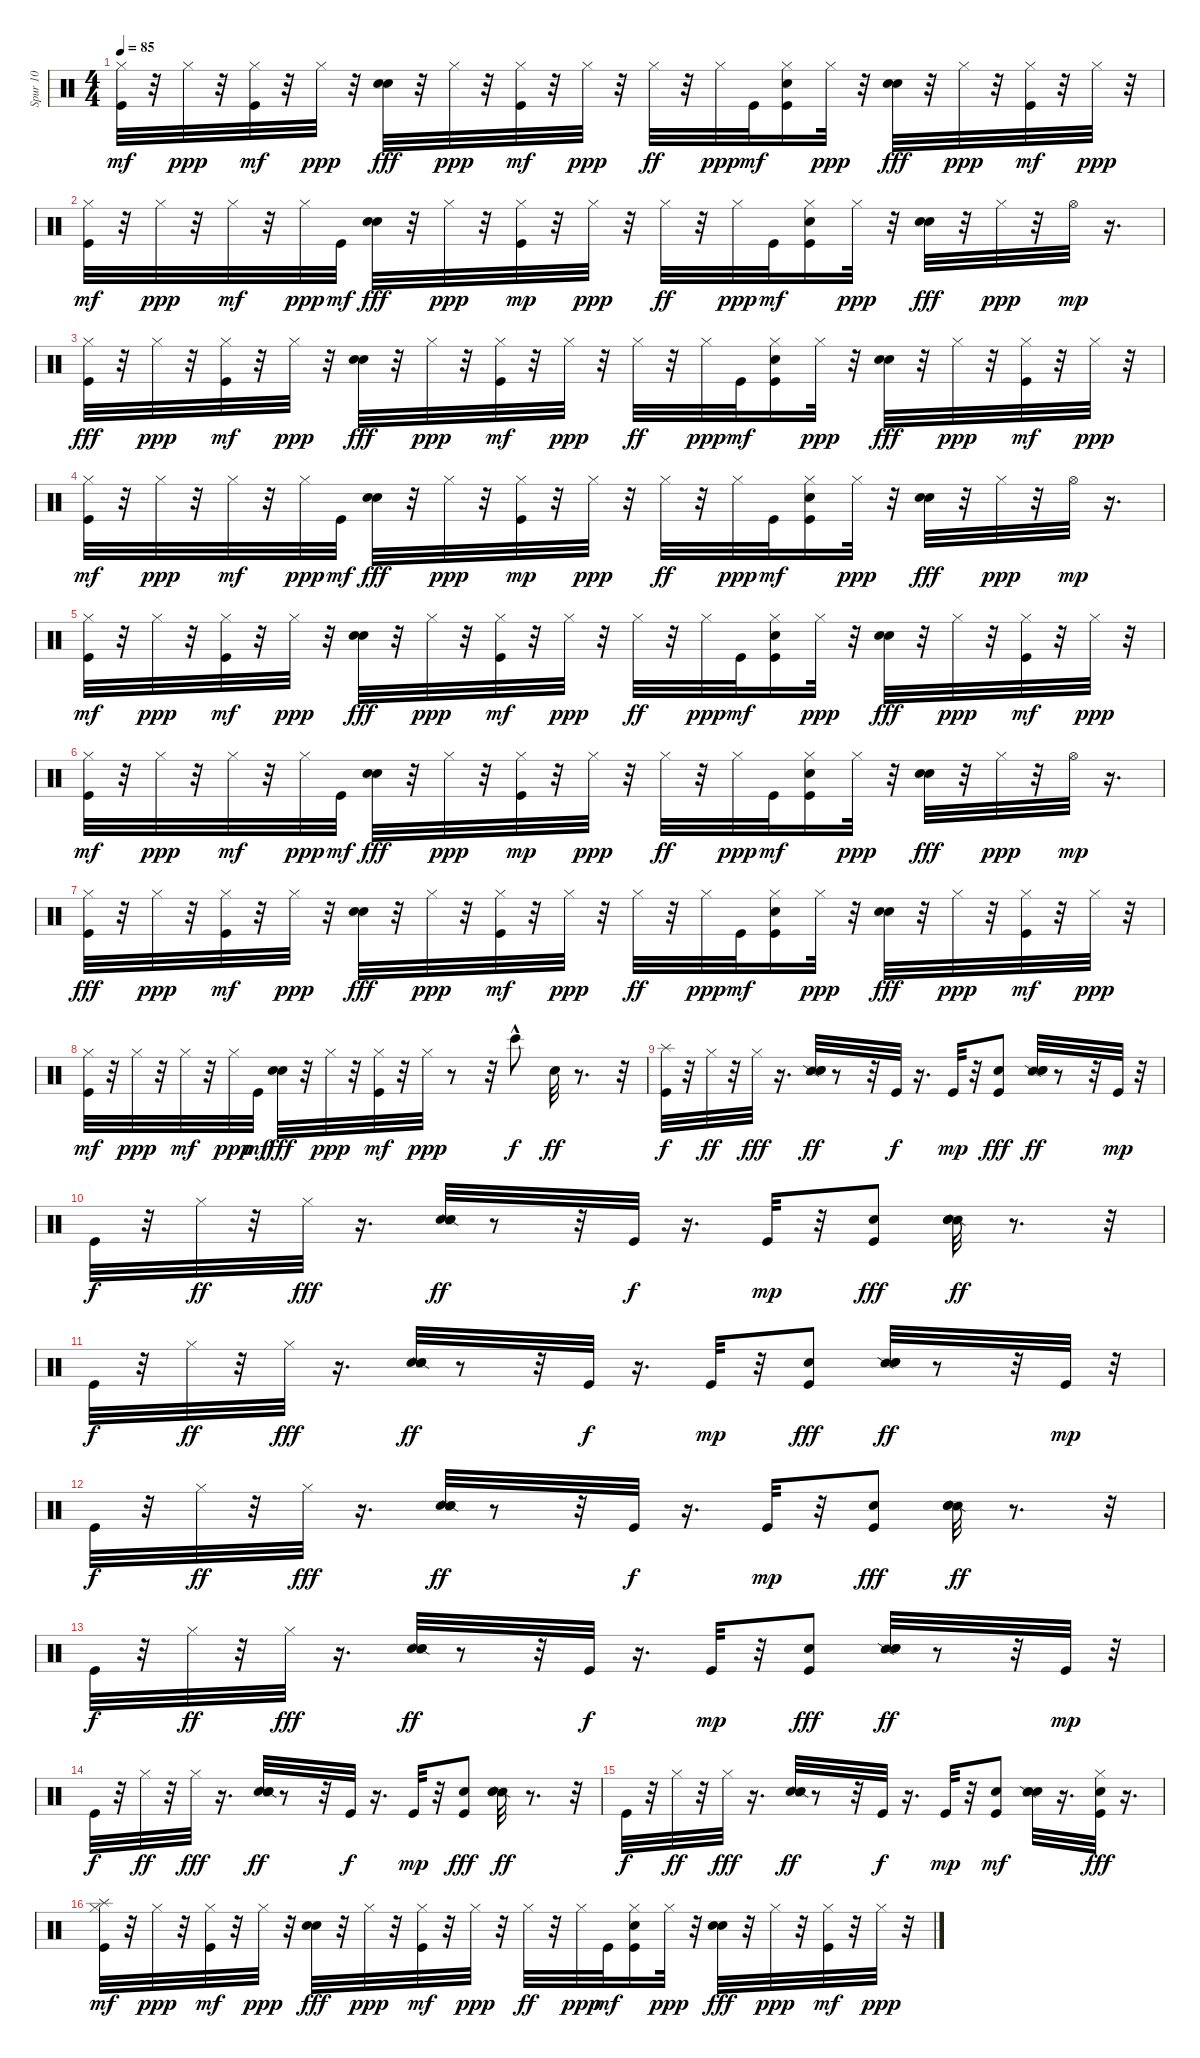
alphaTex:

\track ("Spur 10" "Spur 10") {instrument percussion}
\staff {score}
\articulation defaults
\ts (4 4)
\tempo 85
\clef neutral
\ks c
("Hi-Hat (closed)" "Kick (hit)").32{dy mf} r.32 "Hi-Hat (closed)".32{dy ppp} r.32 ("Hi-Hat (closed)" "Kick (hit)").32{dy mf} r.32 "Hi-Hat (closed)".32{dy ppp} r.32 ("Electric Snare (hit)" "Hand Clap (hit)").32{dy fff} r.32 "Hi-Hat (closed)".32{dy ppp} r.32 ("Hi-Hat (closed)" "Kick (hit)").32{dy mf} r.32 "Hi-Hat (closed)".32{dy ppp} r.32 "Hi-Hat (closed)".32{dy ff} r.32 "Hi-Hat (closed)".32{dy ppp} "Kick (hit)".32{dy mf} ("Kick (hit)" "Hi-Hat (closed)" "Snare (hit)").16 "Hi-Hat (closed)".32{dy ppp} r.32 ("Hand Clap (hit)" "Electric Snare (hit)").32{dy fff} r.32 "Hi-Hat (closed)".32{dy ppp} r.32 ("Hi-Hat (closed)" "Kick (hit)").32{dy mf} r.32 "Hi-Hat (closed)".32{dy ppp} r.32 |
("Hi-Hat (closed)" "Kick (hit)").32{dy mf} r.32 "Hi-Hat (closed)".32{dy ppp} r.32 "Hi-Hat (closed)".32{dy mf} r.32 "Hi-Hat (closed)".32{dy ppp} "Kick (hit)".32{dy mf} ("Electric Snare (hit)" "Hand Clap (hit)").32{dy fff} r.32 "Hi-Hat (closed)".32{dy ppp} r.32 ("Kick (hit)" "Hi-Hat (closed)").32{dy mp} r.32 "Hi-Hat (closed)".32{dy ppp} r.32 "Hi-Hat (closed)".32{dy ff} r.32 "Hi-Hat (closed)".32{dy ppp} "Kick (hit)".32{dy mf} ("Kick (hit)" "Snare (hit)" "Hi-Hat (closed)").16 "Hi-Hat (closed)".32{dy ppp} r.32 ("Hand Clap (hit)" "Electric Snare (hit)").32{dy fff} r.32 "Hi-Hat (closed)".32{dy ppp} r.32 "Hi-Hat (open)".32{dy mp} r.16{d} |
("Kick (hit)" "Hi-Hat (closed)").32{dy fff} r.32 "Hi-Hat (closed)".32{dy ppp} r.32 ("Hi-Hat (closed)" "Kick (hit)").32{dy mf} r.32 "Hi-Hat (closed)".32{dy ppp} r.32 ("Electric Snare (hit)" "Hand Clap (hit)").32{dy fff} r.32 "Hi-Hat (closed)".32{dy ppp} r.32 ("Kick (hit)" "Hi-Hat (closed)").32{dy mf} r.32 "Hi-Hat (closed)".32{dy ppp} r.32 "Hi-Hat (closed)".32{dy ff} r.32 "Hi-Hat (closed)".32{dy ppp} "Kick (hit)".32{dy mf} ("Kick (hit)" "Hi-Hat (closed)" "Snare (hit)").16 "Hi-Hat (closed)".32{dy ppp} r.32 ("Hand Clap (hit)" "Electric Snare (hit)").32{dy fff} r.32 "Hi-Hat (closed)".32{dy ppp} r.32 ("Hi-Hat (closed)" "Kick (hit)").32{dy mf} r.32 "Hi-Hat (closed)".32{dy ppp} r.32 |
("Hi-Hat (closed)" "Kick (hit)").32{dy mf} r.32 "Hi-Hat (closed)".32{dy ppp} r.32 "Hi-Hat (closed)".32{dy mf} r.32 "Hi-Hat (closed)".32{dy ppp} "Kick (hit)".32{dy mf} ("Electric Snare (hit)" "Hand Clap (hit)").32{dy fff} r.32 "Hi-Hat (closed)".32{dy ppp} r.32 ("Kick (hit)" "Hi-Hat (closed)").32{dy mp} r.32 "Hi-Hat (closed)".32{dy ppp} r.32 "Hi-Hat (closed)".32{dy ff} r.32 "Hi-Hat (closed)".32{dy ppp} "Kick (hit)".32{dy mf} ("Kick (hit)" "Snare (hit)" "Hi-Hat (closed)").16 "Hi-Hat (closed)".32{dy ppp} r.32 ("Hand Clap (hit)" "Electric Snare (hit)").32{dy fff} r.32 "Hi-Hat (closed)".32{dy ppp} r.32 "Hi-Hat (open)".32{dy mp} r.16{d} |
("Hi-Hat (closed)" "Kick (hit)").32{dy mf} r.32 "Hi-Hat (closed)".32{dy ppp} r.32 ("Hi-Hat (closed)" "Kick (hit)").32{dy mf} r.32 "Hi-Hat (closed)".32{dy ppp} r.32 ("Electric Snare (hit)" "Hand Clap (hit)").32{dy fff} r.32 "Hi-Hat (closed)".32{dy ppp} r.32 ("Kick (hit)" "Hi-Hat (closed)").32{dy mf} r.32 "Hi-Hat (closed)".32{dy ppp} r.32 "Hi-Hat (closed)".32{dy ff} r.32 "Hi-Hat (closed)".32{dy ppp} "Kick (hit)".32{dy mf} ("Kick (hit)" "Hi-Hat (closed)" "Snare (hit)").16 "Hi-Hat (closed)".32{dy ppp} r.32 ("Hand Clap (hit)" "Electric Snare (hit)").32{dy fff} r.32 "Hi-Hat (closed)".32{dy ppp} r.32 ("Hi-Hat (closed)" "Kick (hit)").32{dy mf} r.32 "Hi-Hat (closed)".32{dy ppp} r.32 |
("Hi-Hat (closed)" "Kick (hit)").32{dy mf} r.32 "Hi-Hat (closed)".32{dy ppp} r.32 "Hi-Hat (closed)".32{dy mf} r.32 "Hi-Hat (closed)".32{dy ppp} "Kick (hit)".32{dy mf} ("Electric Snare (hit)" "Hand Clap (hit)").32{dy fff} r.32 "Hi-Hat (closed)".32{dy ppp} r.32 ("Kick (hit)" "Hi-Hat (closed)").32{dy mp} r.32 "Hi-Hat (closed)".32{dy ppp} r.32 "Hi-Hat (closed)".32{dy ff} r.32 "Hi-Hat (closed)".32{dy ppp} "Kick (hit)".32{dy mf} ("Kick (hit)" "Snare (hit)" "Hi-Hat (closed)").16 "Hi-Hat (closed)".32{dy ppp} r.32 ("Hand Clap (hit)" "Electric Snare (hit)").32{dy fff} r.32 "Hi-Hat (closed)".32{dy ppp} r.32 "Hi-Hat (open)".32{dy mp} r.16{d} |
("Kick (hit)" "Hi-Hat (closed)").32{dy fff} r.32 "Hi-Hat (closed)".32{dy ppp} r.32 ("Hi-Hat (closed)" "Kick (hit)").32{dy mf} r.32 "Hi-Hat (closed)".32{dy ppp} r.32 ("Electric Snare (hit)" "Hand Clap (hit)").32{dy fff} r.32 "Hi-Hat (closed)".32{dy ppp} r.32 ("Kick (hit)" "Hi-Hat (closed)").32{dy mf} r.32 "Hi-Hat (closed)".32{dy ppp} r.32 "Hi-Hat (closed)".32{dy ff} r.32 "Hi-Hat (closed)".32{dy ppp} "Kick (hit)".32{dy mf} ("Kick (hit)" "Hi-Hat (closed)" "Snare (hit)").16 "Hi-Hat (closed)".32{dy ppp} r.32 ("Hand Clap (hit)" "Electric Snare (hit)").32{dy fff} r.32 "Hi-Hat (closed)".32{dy ppp} r.32 ("Hi-Hat (closed)" "Kick (hit)").32{dy mf} r.32 "Hi-Hat (closed)".32{dy ppp} r.32 |
("Hi-Hat (closed)" "Kick (hit)").32{dy mf} r.32 "Hi-Hat (closed)".32{dy ppp} r.32 "Hi-Hat (closed)".32{dy mf} r.32 "Hi-Hat (closed)".32{dy ppp} "Kick (hit)".32{dy mf} ("Electric Snare (hit)" "Hand Clap (hit)").32{dy fff} r.32 "Hi-Hat (closed)".32{dy ppp} r.32 ("Hi-Hat (closed)" "Kick (hit)").32{dy mf} r.32 "Hi-Hat (closed)".32{dy ppp} r.8 r.32 "Bongo High (hit)"{hac}.8{dy f} "Hand Clap (hit)".32{dy ff} r.8{d} r.32 |
("Kick (hit)" "Splash (hit)").32{dy f} r.32 "Hi-Hat (closed)".32{dy ff} r.32 "Hi-Hat (closed)".32{dy fff} r.16{d} ("Snare (side stick) 2" "Snare (hit) 2" "Hand Clap (hit)").32{dy ff} r.8 r.32 "Kick (hit)".32{dy f} r.16{d} "Kick (hit)".32{dy mp} r.32 ("Kick (hit)" "Snare (hit)").8{dy fff} ("Snare (side stick) 2" "Snare (hit) 2" "Hand Clap (hit)").32{dy ff} r.8 r.32 "Kick (hit)".32{dy mp} r.32 |
"Kick (hit)".32{dy f} r.32 "Hi-Hat (closed)".32{dy ff} r.32 "Hi-Hat (closed)".32{dy fff} r.16{d} ("Snare (hit) 2" "Snare (side stick) 2" "Hand Clap (hit)").32{dy ff} r.8 r.32 "Kick (hit)".32{dy f} r.16{d} "Kick (hit)".32{dy mp} r.32 ("Kick (hit)" "Snare (hit)").8{dy fff} ("Snare (side stick) 2" "Snare (hit) 2" "Hand Clap (hit)").32{dy ff} r.8{d} r.32 |
"Kick (hit)".32{dy f} r.32 "Hi-Hat (closed)".32{dy ff} r.32 "Hi-Hat (closed)".32{dy fff} r.16{d} ("Snare (hit) 2" "Snare (side stick) 2" "Hand Clap (hit)").32{dy ff} r.8 r.32 "Kick (hit)".32{dy f} r.16{d} "Kick (hit)".32{dy mp} r.32 ("Kick (hit)" "Snare (hit)").8{dy fff} ("Snare (side stick) 2" "Snare (hit) 2" "Hand Clap (hit)").32{dy ff} r.8 r.32 "Kick (hit)".32{dy mp} r.32 |
"Kick (hit)".32{dy f} r.32 "Hi-Hat (closed)".32{dy ff} r.32 "Hi-Hat (closed)".32{dy fff} r.16{d} ("Snare (hit) 2" "Snare (side stick) 2" "Hand Clap (hit)").32{dy ff} r.8 r.32 "Kick (hit)".32{dy f} r.16{d} "Kick (hit)".32{dy mp} r.32 ("Kick (hit)" "Snare (hit)").8{dy fff} ("Snare (side stick) 2" "Snare (hit) 2" "Hand Clap (hit)").32{dy ff} r.8{d} r.32 |
"Kick (hit)".32{dy f} r.32 "Hi-Hat (closed)".32{dy ff} r.32 "Hi-Hat (closed)".32{dy fff} r.16{d} ("Snare (hit) 2" "Snare (side stick) 2" "Hand Clap (hit)").32{dy ff} r.8 r.32 "Kick (hit)".32{dy f} r.16{d} "Kick (hit)".32{dy mp} r.32 ("Kick (hit)" "Snare (hit)").8{dy fff} ("Snare (side stick) 2" "Snare (hit) 2" "Hand Clap (hit)").32{dy ff} r.8 r.32 "Kick (hit)".32{dy mp} r.32 |
"Kick (hit)".32{dy f} r.32 "Hi-Hat (closed)".32{dy ff} r.32 "Hi-Hat (closed)".32{dy fff} r.16{d} ("Snare (hit) 2" "Snare (side stick) 2" "Hand Clap (hit)").32{dy ff} r.8 r.32 "Kick (hit)".32{dy f} r.16{d} "Kick (hit)".32{dy mp} r.32 ("Kick (hit)" "Snare (hit)").8{dy fff} ("Snare (side stick) 2" "Snare (hit) 2" "Hand Clap (hit)").32{dy ff} r.8{d} r.32 |
"Kick (hit)".32{dy f} r.32 "Hi-Hat (closed)".32{dy ff} r.32 "Hi-Hat (closed)".32{dy fff} r.16{d} ("Snare (hit) 2" "Snare (side stick) 2" "Hand Clap (hit)").32{dy ff} r.8 r.32 "Kick (hit)".32{dy f} r.16{d} "Kick (hit)".32{dy mp} r.32 ("Snare (hit)" "Kick (hit)").8{dy mf} ("Hand Clap (hit)" "Snare (side stick) 2" "Snare (hit) 2").32 r.16{d} ("Hi-Hat (closed)" "Kick (hit)" "Hand Clap (hit)").32{dy fff} r.16{d} |
("Hi-Hat (closed)" "Splash (hit)" "Kick (hit)").32{dy mf} r.32 "Hi-Hat (closed)".32{dy ppp} r.32 ("Hi-Hat (closed)" "Kick (hit)").32{dy mf} r.32 "Hi-Hat (closed)".32{dy ppp} r.32 ("Electric Snare (hit)" "Hand Clap (hit)").32{dy fff} r.32 "Hi-Hat (closed)".32{dy ppp} r.32 ("Kick (hit)" "Hi-Hat (closed)").32{dy mf} r.32 "Hi-Hat (closed)".32{dy ppp} r.32 "Hi-Hat (closed)".32{dy ff} r.32 "Hi-Hat (closed)".32{dy ppp} "Kick (hit)".32{dy mf} ("Kick (hit)" "Hi-Hat (closed)" "Snare (hit)").16 "Hi-Hat (closed)".32{dy ppp} r.32 ("Hand Clap (hit)" "Electric Snare (hit)").32{dy fff} r.32 "Hi-Hat (closed)".32{dy ppp} r.32 ("Hi-Hat (closed)" "Kick (hit)").32{dy mf} r.32 "Hi-Hat (closed)".32{dy ppp} r.32
